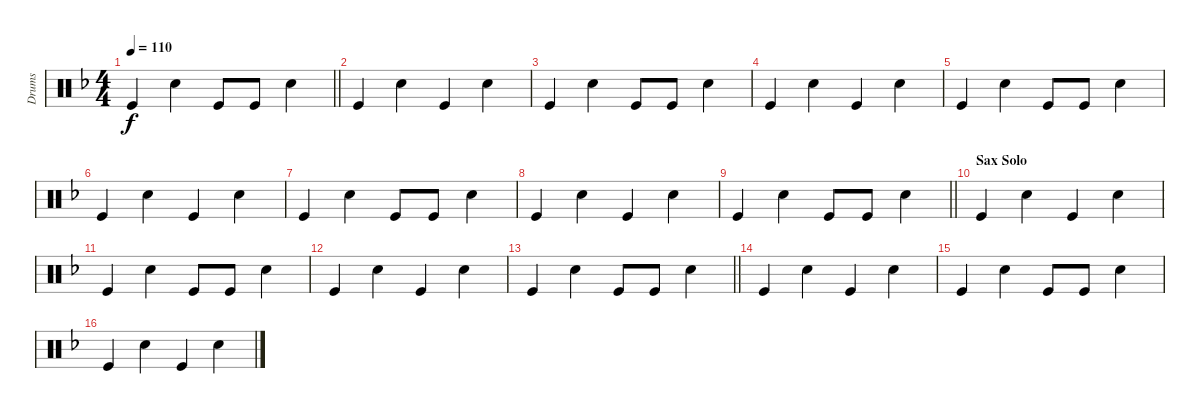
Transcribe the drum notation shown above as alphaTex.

\track ("Drums" "Drums") {instrument percussion}
\staff {score}
\articulation defaults
\ts (4 4)
\tempo 110
\clef neutral
\barLineRight lightlight
\ks dminor "Kick (hit)".4{dy f} "Snare (hit) 2".4 "Kick (hit)".8 "Kick (hit)".8 "Snare (hit) 2".4
|
"Kick (hit)".4 "Snare (hit) 2".4 "Kick (hit)".4 "Snare (hit) 2".4 |
"Kick (hit)".4 "Snare (hit) 2".4 "Kick (hit)".8 "Kick (hit)".8 "Snare (hit) 2".4 |
"Kick (hit)".4 "Snare (hit) 2".4 "Kick (hit)".4 "Snare (hit) 2".4 |
"Kick (hit)".4 "Snare (hit) 2".4 "Kick (hit)".8 "Kick (hit)".8 "Snare (hit) 2".4 |
"Kick (hit)".4 "Snare (hit) 2".4 "Kick (hit)".4 "Snare (hit) 2".4 |
"Kick (hit)".4 "Snare (hit) 2".4 "Kick (hit)".8 "Kick (hit)".8 "Snare (hit) 2".4 |
"Kick (hit)".4 "Snare (hit) 2".4 "Kick (hit)".4 "Snare (hit) 2".4 |
\barLineRight lightlight "Kick (hit)".4 "Snare (hit) 2".4 "Kick (hit)".8 "Kick (hit)".8 "Snare (hit) 2".4
|
\section ("" "Sax Solo")
"Kick (hit)".4 "Snare (hit) 2".4 "Kick (hit)".4 "Snare (hit) 2".4 |
"Kick (hit)".4 "Snare (hit) 2".4 "Kick (hit)".8 "Kick (hit)".8 "Snare (hit) 2".4 |
"Kick (hit)".4 "Snare (hit) 2".4 "Kick (hit)".4 "Snare (hit) 2".4 |
\barLineRight lightlight "Kick (hit)".4 "Snare (hit) 2".4 "Kick (hit)".8 "Kick (hit)".8 "Snare (hit) 2".4
|
"Kick (hit)".4 "Snare (hit) 2".4 "Kick (hit)".4 "Snare (hit) 2".4 |
"Kick (hit)".4 "Snare (hit) 2".4 "Kick (hit)".8 "Kick (hit)".8 "Snare (hit) 2".4 |
"Kick (hit)".4 "Snare (hit) 2".4 "Kick (hit)".4 "Snare (hit) 2".4
